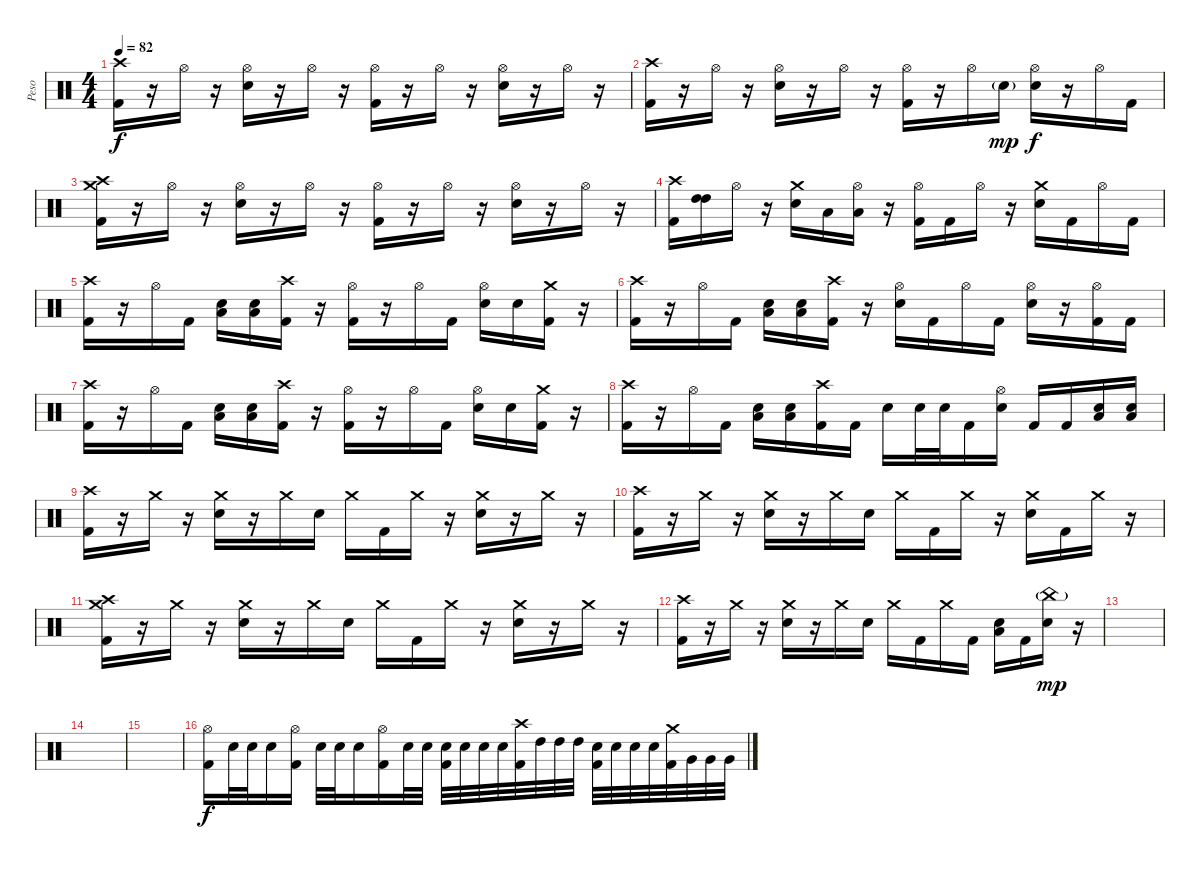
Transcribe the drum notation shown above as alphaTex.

\track ("Peso" "Peso") {instrument percussion}
\staff {score}
\articulation defaults
\ts (4 4)
\tempo 82
\clef neutral
\ks c
("Crash high (hit)" "Kick (hit) 2").16{dy f} r.16 "Hi-Hat (open)".16 r.16 ("Hi-Hat (open)" "Electric Snare (hit)").16 r.16 "Hi-Hat (open)".16 r.16 ("Hi-Hat (open)" "Kick (hit) 2").16 r.16 "Hi-Hat (open)".16 r.16 ("Hi-Hat (open)" "Electric Snare (hit)").16 r.16 "Hi-Hat (open)".16 r.16 |
("Crash high (hit)" "Kick (hit) 2").16 r.16 "Hi-Hat (open)".16 r.16 ("Hi-Hat (open)" "Electric Snare (hit)").16 r.16 "Hi-Hat (open)".16 r.16 ("Hi-Hat (open)" "Kick (hit) 2").16 r.16 "Hi-Hat (open)".16 "Electric Snare (hit)"{g}.16{dy mp} ("Hi-Hat (open)" "Electric Snare (hit)").16{dy f} r.16 "Hi-Hat (open)".16 "Kick (hit) 2".16 |
("Crash high (hit)" "Crash medium (hit)" "Kick (hit) 2").16 r.16 "Hi-Hat (open)".16 r.16 ("Hi-Hat (open)" "Electric Snare (hit)").16 r.16 "Hi-Hat (open)".16 r.16 ("Hi-Hat (open)" "Kick (hit) 2").16 r.16 "Hi-Hat (open)".16 r.16 ("Hi-Hat (open)" "Electric Snare (hit)").16 r.16 "Hi-Hat (open)".16 r.16 |
("Crash high (hit)" "Kick (hit) 2").16 ("High Tom (hit)" "High Tom (hit)").16 "Hi-Hat (open)".16 r.16 ("Crash medium (hit)" "Electric Snare (hit)").16 "Low Tom (hit)".16 ("Hi-Hat (open)" "Low Tom (hit)").16 r.16 ("Hi-Hat (open)" "Kick (hit) 2").16 "Kick (hit) 2".16 "Hi-Hat (open)".16 r.16 ("Crash medium (hit)" "Electric Snare (hit)").16 "Kick (hit) 2".16 "Hi-Hat (open)".16 "Kick (hit) 2".16 |
("Crash high (hit)" "Kick (hit) 2").16 r.16 "Hi-Hat (open)".16 "Kick (hit) 2".16 ("Low Floor Tom (hit)" "Electric Snare (hit)").16 ("Low Floor Tom (hit)" "Electric Snare (hit)").16 ("Crash high (hit)" "Kick (hit) 2").16 r.16 ("Hi-Hat (open)" "Kick (hit) 2").16 r.16 "Hi-Hat (open)".16 "Kick (hit) 2".16 ("Hi-Hat (open)" "Electric Snare (hit)").16 "Electric Snare (hit)".16 ("Crash medium (hit)" "Kick (hit) 2").16 r.16 |
("Crash high (hit)" "Kick (hit) 2").16 r.16 "Hi-Hat (open)".16 "Kick (hit) 2".16 ("Low Floor Tom (hit)" "Electric Snare (hit)").16 ("Low Floor Tom (hit)" "Electric Snare (hit)").16 ("Crash high (hit)" "Kick (hit) 2").16 r.16 ("Hi-Hat (open)" "Electric Snare (hit)").16 "Kick (hit) 2".16 "Hi-Hat (open)".16 "Kick (hit) 2".16 ("Hi-Hat (open)" "Electric Snare (hit)").16 r.16 ("Hi-Hat (open)" "Kick (hit) 2").16 "Kick (hit) 2".16 |
("Crash high (hit)" "Kick (hit) 2").16 r.16 "Hi-Hat (open)".16 "Kick (hit) 2".16 ("Low Floor Tom (hit)" "Electric Snare (hit)").16 ("Low Floor Tom (hit)" "Electric Snare (hit)").16 ("Crash high (hit)" "Kick (hit) 2").16 r.16 ("Hi-Hat (open)" "Kick (hit) 2").16 r.16 "Hi-Hat (open)".16 "Kick (hit) 2".16 ("Hi-Hat (open)" "Electric Snare (hit)").16 "Electric Snare (hit)".16 ("Crash medium (hit)" "Kick (hit) 2").16 r.16 |
("Crash high (hit)" "Kick (hit) 2").16 r.16 "Hi-Hat (open)".16 "Kick (hit) 2".16 ("Low Floor Tom (hit)" "Electric Snare (hit)").16 ("Low Floor Tom (hit)" "Electric Snare (hit)").16 ("Crash high (hit)" "Kick (hit) 2").16 "Kick (hit) 2".16 "Electric Snare (hit)".16 "Electric Snare (hit)".32 "Electric Snare (hit)".32 "Kick (hit) 2".16 ("Hi-Hat (open)" "Electric Snare (hit)").16 "Kick (hit) 2".16 "Kick (hit) 2".16 ("Low Floor Tom (hit)" "Electric Snare (hit)").16 ("Low Floor Tom (hit)" "Electric Snare (hit)").16 |
("Crash high (hit)" "Kick (hit) 2").16 r.16 "Crash medium (hit)".16 r.16 ("Crash medium (hit)" "Electric Snare (hit)").16 r.16 "Crash medium (hit)".16 "Electric Snare (hit)".16 "Crash medium (hit)".16 "Kick (hit) 2".16 "Crash medium (hit)".16 r.16 ("Crash medium (hit)" "Electric Snare (hit)").16 r.16 "Crash medium (hit)".16 r.16 |
("Crash high (hit)" "Kick (hit) 2").16 r.16 "Crash medium (hit)".16 r.16 ("Crash medium (hit)" "Electric Snare (hit)").16 r.16 "Crash medium (hit)".16 "Electric Snare (hit)".16 "Crash medium (hit)".16 "Kick (hit) 2".16 "Crash medium (hit)".16 r.16 ("Crash medium (hit)" "Electric Snare (hit)").16 "Kick (hit) 2".16 "Crash medium (hit)".16 r.16 |
("Crash high (hit)" "Crash medium (hit)" "Kick (hit) 2").16 r.16 "Crash medium (hit)".16 r.16 ("Crash medium (hit)" "Electric Snare (hit)").16 r.16 "Crash medium (hit)".16 "Electric Snare (hit)".16 "Crash medium (hit)".16 "Kick (hit) 2".16 "Crash medium (hit)".16 r.16 ("Crash medium (hit)" "Electric Snare (hit)").16 r.16 "Crash medium (hit)".16 r.16 |
("Crash high (hit)" "Kick (hit) 2").16 r.16 "Crash medium (hit)".16 r.16 ("Crash medium (hit)" "Electric Snare (hit)").16 r.16 "Crash medium (hit)".16 "Electric Snare (hit)".16 "Crash medium (hit)".16 "Kick (hit) 2".16 "Crash medium (hit)".16 "Kick (hit) 2".16 ("Low Floor Tom (hit)" "Electric Snare (hit)").16 "Kick (hit) 2".16 ("China (hit)"{g} "Electric Snare (hit)").16{dy mp} r.16 |
|
|
|
("Hi-Hat (open)" "Kick (hit) 2").16{dy f} "Electric Snare (hit)".32 "Electric Snare (hit)".32 "Electric Snare (hit)".16 ("Hi-Hat (open)" "Kick (hit) 2").16 "Electric Snare (hit)".32 "Electric Snare (hit)".32 "Electric Snare (hit)".16 ("Hi-Hat (open)" "Kick (hit) 2").16 "Electric Snare (hit)".32 "Electric Snare (hit)".32 ("Electric Snare (hit)" "Kick (hit) 2").32 "Electric Snare (hit)".32 "Electric Snare (hit)".32 "Electric Snare (hit)".32 ("Crash high (hit)" "Kick (hit) 2").32 "High Tom (hit)".32 "High Tom (hit)".32 "High Tom (hit)".32 ("Electric Snare (hit)" "Kick (hit) 2").32 "Electric Snare (hit)".32 "Electric Snare (hit)".32 "Electric Snare (hit)".32 ("Crash medium (hit)" "Kick (hit) 2").32 "Very Low Tom (hit)".32 "Very Low Tom (hit)".32 "Very Low Tom (hit)".32
